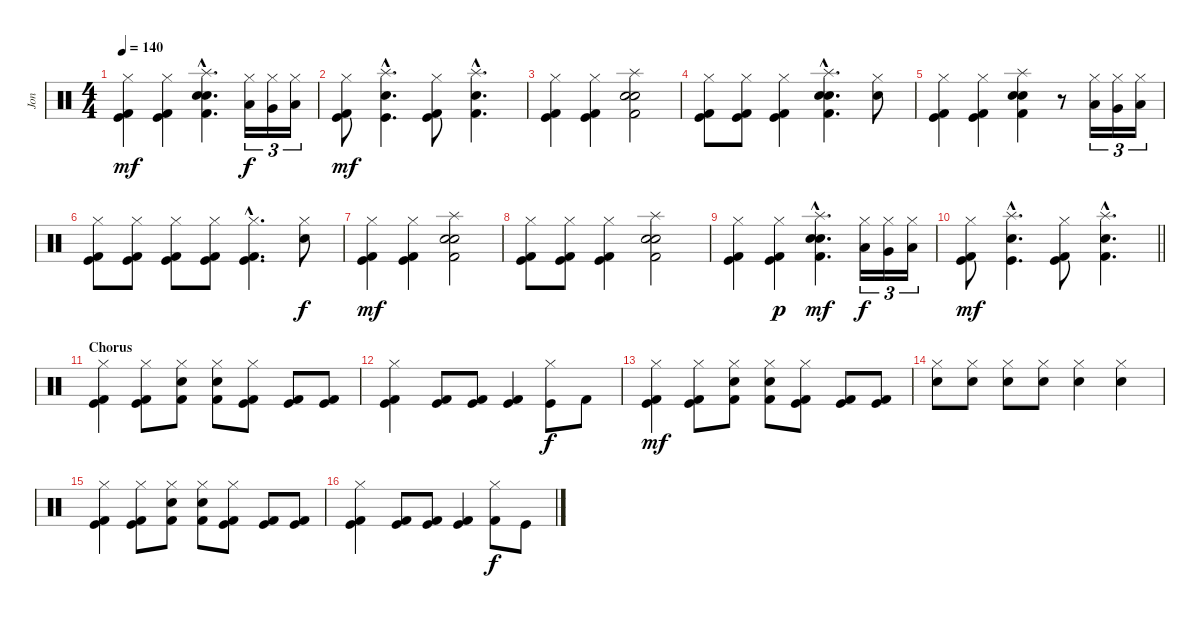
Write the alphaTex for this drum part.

\track ("Jon" "Jon") {instrument percussion}
\staff {score}
\articulation defaults
\ts (4 4)
\tempo 140
\clef neutral
\ks c
("Kick (hit) 2" "Kick (hit)" "Hi-Hat (closed)").4{dy mf} ("Kick (hit) 2" "Kick (hit)" "Hi-Hat (closed)").4 ("Electric Snare (hit)"{hac} "Electric Snare (hit)"{hac} "Splash (hit)"{hac} "Kick (hit) 2"{hac}).4{d} ("Low Tom (hit)" "Hi-Hat (closed)").16{tu (3 2) dy f} ("Very Low Tom (hit)" "Hi-Hat (closed)").16{tu (3 2)} ("Low Floor Tom (hit)" "Hi-Hat (closed)").16{tu (3 2)} |
("Kick (hit)" "Kick (hit) 2" "Hi-Hat (closed)").8{dy mf} ("Electric Snare (hit)"{hac} "Kick (hit)"{hac} "Splash (hit)"{hac}).4{d} ("Kick (hit)" "Kick (hit) 2" "Hi-Hat (closed)").8 ("Electric Snare (hit)"{hac} "Kick (hit) 2"{hac} "Splash (hit)"{hac}).4{d} |
("Kick (hit)" "Kick (hit) 2" "Hi-Hat (closed)").4 ("Kick (hit)" "Kick (hit) 2" "Hi-Hat (closed)").4 ("Electric Snare (hit)" "Electric Snare (hit)" "Splash (hit)" "Kick (hit) 2").2 |
("Kick (hit) 2" "Kick (hit)" "Hi-Hat (closed)").8 ("Kick (hit) 2" "Kick (hit)" "Hi-Hat (closed)").8 ("Kick (hit) 2" "Kick (hit)" "Hi-Hat (closed)").4 ("Electric Snare (hit)"{hac} "Electric Snare (hit)"{hac} "Splash (hit)"{hac} "Kick (hit) 2"{hac}).4{d} ("Electric Snare (hit)" "Hi-Hat (closed)").8 |
("Kick (hit) 2" "Kick (hit)" "Hi-Hat (closed)").4 ("Kick (hit) 2" "Kick (hit)" "Hi-Hat (closed)").4 ("Electric Snare (hit)" "Electric Snare (hit)" "Splash (hit)" "Kick (hit) 2").4 r.8 ("Low Tom (hit)" "Hi-Hat (closed)").16{tu (3 2)} ("Very Low Tom (hit)" "Hi-Hat (closed)").16{tu (3 2)} ("Low Floor Tom (hit)" "Hi-Hat (closed)").16{tu (3 2)} |
("Kick (hit) 2" "Kick (hit)" "Hi-Hat (closed)").8 ("Kick (hit) 2" "Kick (hit)" "Hi-Hat (closed)").8 ("Kick (hit) 2" "Kick (hit)" "Hi-Hat (closed)").8 ("Kick (hit) 2" "Kick (hit)" "Hi-Hat (closed)").8 ("Kick (hit) 2"{hac} "Kick (hit)"{hac} "Hi-Hat (closed)"{hac}).4{d} ("Electric Snare (hit)" "Hi-Hat (closed)").8{dy f} |
("Kick (hit) 2" "Kick (hit)" "Hi-Hat (closed)").4{dy mf} ("Kick (hit) 2" "Kick (hit)" "Hi-Hat (closed)").4 ("Electric Snare (hit)" "Electric Snare (hit)" "Splash (hit)" "Kick (hit) 2").2 |
("Kick (hit) 2" "Kick (hit)" "Hi-Hat (closed)").8 ("Kick (hit) 2" "Kick (hit)" "Hi-Hat (closed)").8 ("Kick (hit) 2" "Kick (hit)" "Hi-Hat (closed)").4 ("Electric Snare (hit)" "Electric Snare (hit)" "Splash (hit)" "Kick (hit) 2").2 |
("Kick (hit) 2" "Kick (hit)" "Hi-Hat (closed)").4 ("Kick (hit) 2" "Kick (hit)" "Hi-Hat (closed)").4{dy p} ("Electric Snare (hit)"{hac} "Electric Snare (hit)"{hac} "Splash (hit)"{hac} "Kick (hit) 2"{hac}).4{d dy mf} ("Low Tom (hit)" "Hi-Hat (closed)").16{tu (3 2) dy f} ("Very Low Tom (hit)" "Hi-Hat (closed)").16{tu (3 2)} ("Low Floor Tom (hit)" "Hi-Hat (closed)").16{tu (3 2)} |
\barLineRight lightlight
("Kick (hit)" "Kick (hit) 2" "Hi-Hat (closed)").8{dy mf} ("Electric Snare (hit)"{hac} "Kick (hit)"{hac} "Splash (hit)"{hac}).4{d} ("Kick (hit)" "Kick (hit) 2" "Hi-Hat (closed)").8 ("Electric Snare (hit)"{hac} "Kick (hit) 2"{hac} "Splash (hit)"{hac}).4{d} |
\section ("" "Chorus")
("Kick (hit)" "Kick (hit) 2" "Hi-Hat (closed)").4 ("Kick (hit)" "Kick (hit) 2" "Hi-Hat (closed)").8 ("Snare (hit) 2" "Kick (hit) 2" "Hi-Hat (closed)").8 ("Electric Snare (hit)" "Kick (hit) 2" "Hi-Hat (closed)").8 ("Kick (hit)" "Kick (hit) 2" "Hi-Hat (closed)").8 ("Kick (hit)" "Kick (hit) 2").8 ("Kick (hit)" "Kick (hit) 2").8 |
("Kick (hit)" "Kick (hit) 2" "Hi-Hat (closed)").4 ("Kick (hit)" "Kick (hit) 2").8 ("Kick (hit)" "Kick (hit) 2").8 ("Kick (hit)" "Kick (hit) 2").4 ("Kick (hit)" "Hi-Hat (closed)").8{dy f} "Kick (hit) 2".8 |
("Kick (hit)" "Kick (hit) 2" "Hi-Hat (closed)").4{dy mf} ("Kick (hit)" "Kick (hit) 2" "Hi-Hat (closed)").8 ("Snare (hit) 2" "Kick (hit) 2" "Hi-Hat (closed)").8 ("Electric Snare (hit)" "Kick (hit) 2" "Hi-Hat (closed)").8 ("Kick (hit)" "Kick (hit) 2" "Hi-Hat (closed)").8 ("Kick (hit)" "Kick (hit) 2").8 ("Kick (hit)" "Kick (hit) 2").8 |
("Electric Snare (hit)" "Hi-Hat (closed)").8 ("Electric Snare (hit)" "Hi-Hat (closed)").8 ("Electric Snare (hit)" "Hi-Hat (closed)").8 ("Electric Snare (hit)" "Hi-Hat (closed)").8 ("Electric Snare (hit)" "Hi-Hat (closed)").4 ("Electric Snare (hit)" "Hi-Hat (closed)").4 |
("Kick (hit)" "Kick (hit) 2" "Hi-Hat (closed)").4 ("Kick (hit)" "Kick (hit) 2" "Hi-Hat (closed)").8 ("Snare (hit) 2" "Kick (hit) 2" "Hi-Hat (closed)").8 ("Electric Snare (hit)" "Kick (hit) 2" "Hi-Hat (closed)").8 ("Kick (hit)" "Kick (hit) 2" "Hi-Hat (closed)").8 ("Kick (hit)" "Kick (hit) 2").8 ("Kick (hit)" "Kick (hit) 2").8 |
("Kick (hit)" "Kick (hit) 2" "Hi-Hat (closed)").4 ("Kick (hit)" "Kick (hit) 2").8 ("Kick (hit)" "Kick (hit) 2").8 ("Kick (hit)" "Kick (hit) 2").4 ("Kick (hit) 2" "Hi-Hat (closed)").8{dy f} "Kick (hit)".8
